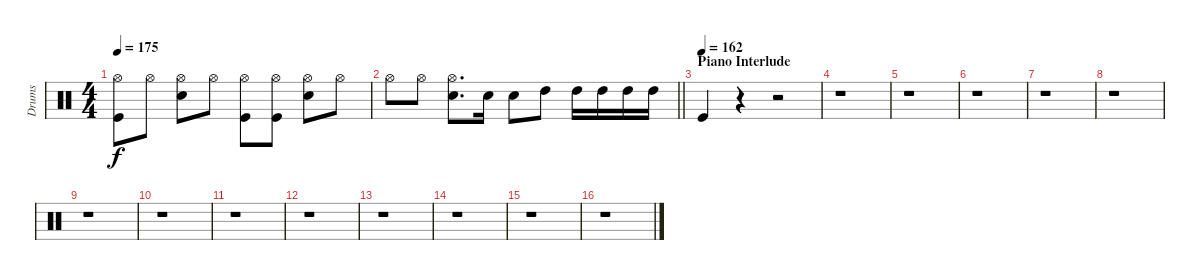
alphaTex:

\track ("Drums" "Drums") {instrument percussion}
\staff {score}
\articulation defaults
\ts (4 4)
\tempo 175
\clef neutral
\ks c
("Hi-Hat (open)" "Kick (hit)").8{dy f} "Hi-Hat (open)".8 ("Hi-Hat (open)" "Snare (hit) 2").8 "Hi-Hat (open)".8 ("Hi-Hat (open)" "Kick (hit)").8 ("Hi-Hat (open)" "Kick (hit)").8 ("Hi-Hat (open)" "Snare (hit) 2").8 "Hi-Hat (open)".8 |
\barLineRight lightlight "Hi-Hat (open)".8 "Hi-Hat (open)".8
("Hi-Hat (open)" "Snare (hit) 2").8{d} "Snare (hit) 2".16 "Snare (hit) 2".8 "High Tom (hit)".8 "High Tom (hit)".16 "High Tom (hit)".16 "High Tom (hit)".16 "High Tom (hit)".16 |
\section ("" "Piano Interlude")
\tempo (162)
"Kick (hit)".4 r.4 r.2 |
r.1 |
r.1 |
r.1 |
r.1 |
r.1 |
r.1 |
r.1 |
r.1 |
r.1 |
r.1 |
r.1 |
r.1 |
r.1
